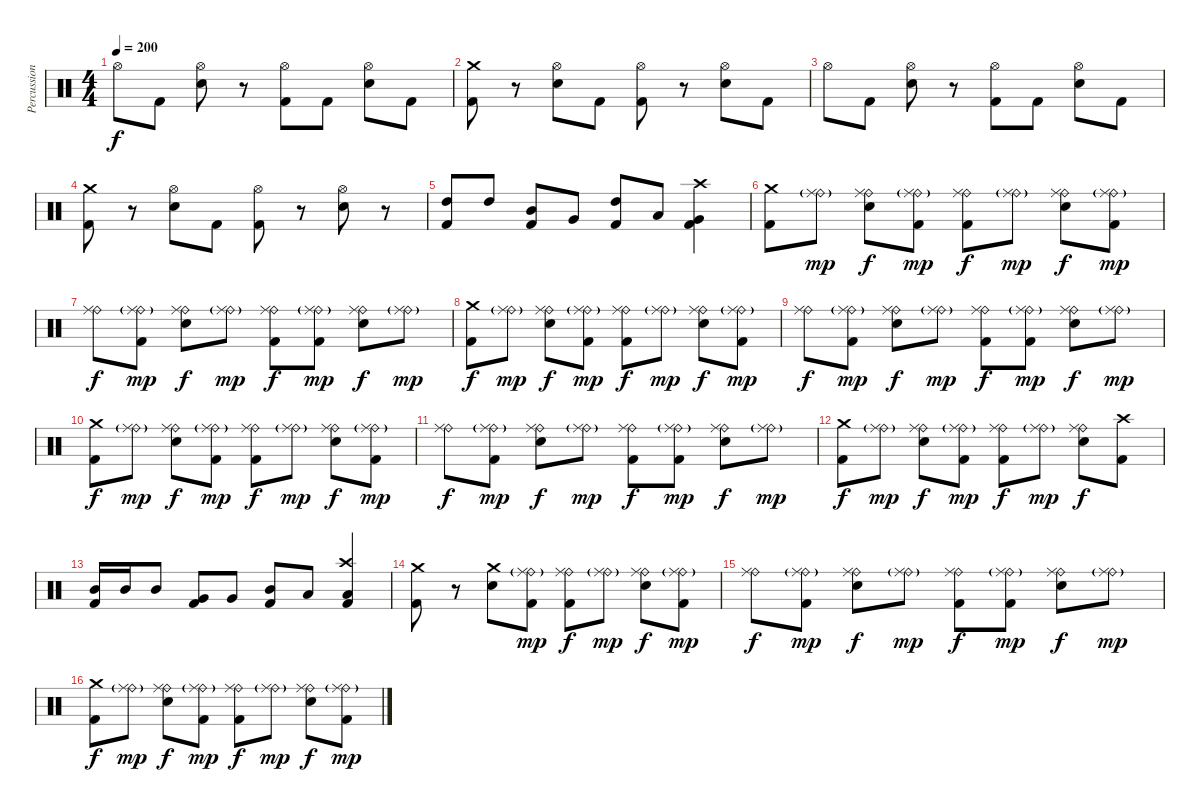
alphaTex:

\track ("Percussion" "Percussion") {instrument percussion}
\staff {score}
\articulation defaults
\ts (4 4)
\tempo 200
\clef neutral
\ks c "Hi-Hat (open)".8{dy f} "Kick (hit) 2".8
("Hi-Hat (open)" "Electric Snare (hit)").8 r.8 ("Hi-Hat (open)" "Kick (hit) 2").8 "Kick (hit) 2".8 ("Hi-Hat (open)" "Electric Snare (hit)").8 "Kick (hit) 2".8 |
("Crash medium (hit)" "Kick (hit) 2").8 r.8 ("Hi-Hat (open)" "Electric Snare (hit)").8 "Kick (hit) 2".8 ("Hi-Hat (open)" "Kick (hit) 2").8 r.8 ("Hi-Hat (open)" "Electric Snare (hit)").8 "Kick (hit) 2".8 |
"Hi-Hat (open)".8 "Kick (hit) 2".8 ("Hi-Hat (open)" "Electric Snare (hit)").8 r.8 ("Hi-Hat (open)" "Kick (hit) 2").8 "Kick (hit) 2".8 ("Hi-Hat (open)" "Electric Snare (hit)").8 "Kick (hit) 2".8 |
("Crash medium (hit)" "Kick (hit) 2").8 r.8 ("Hi-Hat (open)" "Electric Snare (hit)").8 "Kick (hit) 2".8 ("Hi-Hat (open)" "Kick (hit) 2").8 r.8 ("Hi-Hat (open)" "Electric Snare (hit)").8 r.8 |
("High Tom (hit)" "Kick (hit) 2").8 "High Tom (hit)".8 ("Mid Tom (hit)" "Kick (hit) 2").8 "Very Low Tom (hit)".8 ("High Tom (hit)" "Kick (hit) 2").8 "Low Tom (hit)".8 ("Crash high (hit)" "Very Low Tom (hit)" "Kick (hit) 2").4 |
("Crash medium (hit)" "Kick (hit) 2").8 ("Ride (bell)"{g} "Ride (middle)").8{dy mp} ("Ride (bell)" "Ride (middle)" "Electric Snare (hit)").8{dy f} ("Ride (bell)"{g} "Ride (middle)" "Kick (hit) 2").8{dy mp} ("Ride (bell)" "Ride (middle)" "Kick (hit) 2").8{dy f} ("Ride (bell)"{g} "Ride (middle)").8{dy mp} ("Ride (bell)" "Ride (middle)" "Electric Snare (hit)").8{dy f} ("Ride (bell)"{g} "Ride (middle)" "Kick (hit) 2").8{dy mp} |
("Ride (bell)" "Ride (middle)").8{dy f} ("Ride (bell)"{g} "Ride (middle)" "Kick (hit) 2").8{dy mp} ("Ride (bell)" "Ride (middle)" "Electric Snare (hit)").8{dy f} ("Ride (bell)"{g} "Ride (middle)").8{dy mp} ("Ride (bell)" "Ride (middle)" "Kick (hit) 2").8{dy f} ("Ride (bell)"{g} "Ride (middle)" "Kick (hit) 2").8{dy mp} ("Ride (bell)" "Ride (middle)" "Electric Snare (hit)").8{dy f} ("Ride (bell)"{g} "Ride (middle)").8{dy mp} |
("Crash medium (hit)" "Kick (hit) 2").8{dy f} ("Ride (bell)"{g} "Ride (middle)").8{dy mp} ("Ride (bell)" "Ride (middle)" "Electric Snare (hit)").8{dy f} ("Ride (bell)"{g} "Ride (middle)" "Kick (hit) 2").8{dy mp} ("Ride (bell)" "Ride (middle)" "Kick (hit) 2").8{dy f} ("Ride (bell)"{g} "Ride (middle)").8{dy mp} ("Ride (bell)" "Ride (middle)" "Electric Snare (hit)").8{dy f} ("Ride (bell)"{g} "Ride (middle)" "Kick (hit) 2").8{dy mp} |
("Ride (bell)" "Ride (middle)").8{dy f} ("Ride (bell)"{g} "Ride (middle)" "Kick (hit) 2").8{dy mp} ("Ride (bell)" "Ride (middle)" "Electric Snare (hit)").8{dy f} ("Ride (bell)"{g} "Ride (middle)").8{dy mp} ("Ride (bell)" "Ride (middle)" "Kick (hit) 2").8{dy f} ("Ride (bell)"{g} "Ride (middle)" "Kick (hit) 2").8{dy mp} ("Ride (bell)" "Ride (middle)" "Electric Snare (hit)").8{dy f} ("Ride (bell)"{g} "Ride (middle)").8{dy mp} |
("Crash medium (hit)" "Kick (hit) 2").8{dy f} ("Ride (bell)"{g} "Ride (middle)").8{dy mp} ("Ride (bell)" "Ride (middle)" "Electric Snare (hit)").8{dy f} ("Ride (bell)"{g} "Ride (middle)" "Kick (hit) 2").8{dy mp} ("Ride (bell)" "Ride (middle)" "Kick (hit) 2").8{dy f} ("Ride (bell)"{g} "Ride (middle)").8{dy mp} ("Ride (bell)" "Ride (middle)" "Electric Snare (hit)").8{dy f} ("Ride (bell)"{g} "Ride (middle)" "Kick (hit) 2").8{dy mp} |
("Ride (bell)" "Ride (middle)").8{dy f} ("Ride (bell)"{g} "Ride (middle)" "Kick (hit) 2").8{dy mp} ("Ride (bell)" "Ride (middle)" "Electric Snare (hit)").8{dy f} ("Ride (bell)"{g} "Ride (middle)").8{dy mp} ("Ride (bell)" "Ride (middle)" "Kick (hit) 2").8{dy f} ("Ride (bell)"{g} "Ride (middle)" "Kick (hit) 2").8{dy mp} ("Ride (bell)" "Ride (middle)" "Electric Snare (hit)").8{dy f} ("Ride (bell)"{g} "Ride (middle)").8{dy mp} |
("Crash medium (hit)" "Kick (hit) 2").8{dy f} ("Ride (bell)"{g} "Ride (middle)").8{dy mp} ("Ride (bell)" "Ride (middle)" "Electric Snare (hit)").8{dy f} ("Ride (bell)"{g} "Ride (middle)" "Kick (hit) 2").8{dy mp} ("Ride (bell)" "Ride (middle)" "Kick (hit) 2").8{dy f} ("Ride (bell)"{g} "Ride (middle)").8{dy mp} ("Ride (bell)" "Ride (middle)" "Electric Snare (hit)").8{dy f} ("Crash high (hit)" "Kick (hit) 2").8 |
("Mid Tom (hit)" "Kick (hit) 2").16 "Mid Tom (hit)".16 "Mid Tom (hit)".8 ("Very Low Tom (hit)" "Kick (hit) 2").8 "Very Low Tom (hit)".8 ("Mid Tom (hit)" "Kick (hit) 2").8 "Low Tom (hit)".8 ("Crash high (hit)" "Low Floor Tom (hit)" "Kick (hit) 2").4 |
("Crash medium (hit)" "Kick (hit) 2").8 r.8 ("Crash medium (hit)" "Electric Snare (hit)").8 ("Ride (bell)"{g} "Ride (middle)" "Kick (hit) 2").8{dy mp} ("Ride (bell)" "Ride (middle)" "Kick (hit) 2").8{dy f} ("Ride (bell)"{g} "Ride (middle)").8{dy mp} ("Ride (bell)" "Ride (middle)" "Electric Snare (hit)").8{dy f} ("Ride (bell)"{g} "Ride (middle)" "Kick (hit) 2").8{dy mp} |
("Ride (bell)" "Ride (middle)").8{dy f} ("Ride (bell)"{g} "Ride (middle)" "Kick (hit) 2").8{dy mp} ("Ride (bell)" "Ride (middle)" "Electric Snare (hit)").8{dy f} ("Ride (bell)"{g} "Ride (middle)").8{dy mp} ("Ride (bell)" "Ride (middle)" "Kick (hit) 2").8{dy f} ("Ride (bell)"{g} "Ride (middle)" "Kick (hit) 2").8{dy mp} ("Ride (bell)" "Ride (middle)" "Electric Snare (hit)").8{dy f} ("Ride (bell)"{g} "Ride (middle)").8{dy mp} |
("Crash medium (hit)" "Kick (hit) 2").8{dy f} ("Ride (bell)"{g} "Ride (middle)").8{dy mp} ("Ride (bell)" "Ride (middle)" "Electric Snare (hit)").8{dy f} ("Ride (bell)"{g} "Ride (middle)" "Kick (hit) 2").8{dy mp} ("Ride (bell)" "Ride (middle)" "Kick (hit) 2").8{dy f} ("Ride (bell)"{g} "Ride (middle)").8{dy mp} ("Ride (bell)" "Ride (middle)" "Electric Snare (hit)").8{dy f} ("Ride (bell)"{g} "Ride (middle)" "Kick (hit) 2").8{dy mp}
